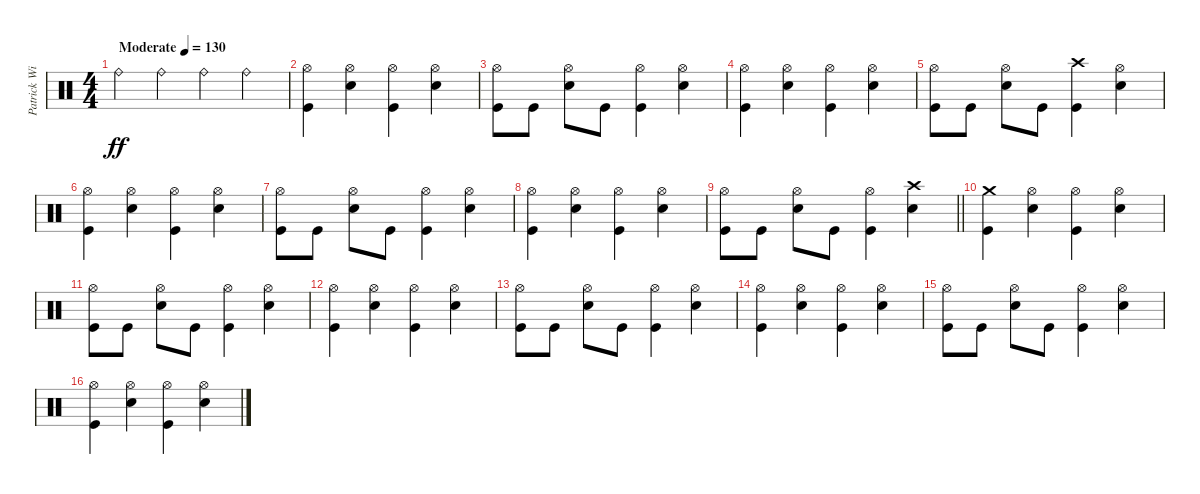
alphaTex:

\track ("Patrick Wilson" "Patrick Wi") {instrument percussion}
\staff {score}
\articulation defaults
\ts (4 4)
\tempo (130 "Moderate")
\clef neutral
\ks c "Ride (bell)".4{dy ff} "Ride (bell)".4 "Ride (bell)".4 "Ride (bell)".4
|
("Hi-Hat (open)" "Kick (hit)").4 ("Hi-Hat (open)" "Electric Snare (hit)").4 ("Hi-Hat (open)" "Kick (hit)").4 ("Hi-Hat (open)" "Electric Snare (hit)").4 |
("Hi-Hat (open)" "Kick (hit)").8 "Kick (hit)".8 ("Hi-Hat (open)" "Electric Snare (hit)").8 "Kick (hit)".8 ("Hi-Hat (open)" "Kick (hit)").4 ("Hi-Hat (open)" "Electric Snare (hit)").4 |
("Hi-Hat (open)" "Kick (hit)").4 ("Hi-Hat (open)" "Electric Snare (hit)").4 ("Hi-Hat (open)" "Kick (hit)").4 ("Hi-Hat (open)" "Electric Snare (hit)").4 |
("Hi-Hat (open)" "Kick (hit)").8 "Kick (hit)".8 ("Hi-Hat (open)" "Electric Snare (hit)").8 "Kick (hit)".8 ("Crash high (hit)" "Kick (hit)").4 ("Hi-Hat (open)" "Electric Snare (hit)").4 |
("Hi-Hat (open)" "Kick (hit)").4 ("Hi-Hat (open)" "Electric Snare (hit)").4 ("Hi-Hat (open)" "Kick (hit)").4 ("Hi-Hat (open)" "Electric Snare (hit)").4 |
("Hi-Hat (open)" "Kick (hit)").8 "Kick (hit)".8 ("Hi-Hat (open)" "Electric Snare (hit)").8 "Kick (hit)".8 ("Hi-Hat (open)" "Kick (hit)").4 ("Hi-Hat (open)" "Electric Snare (hit)").4 |
("Hi-Hat (open)" "Kick (hit)").4 ("Hi-Hat (open)" "Electric Snare (hit)").4 ("Hi-Hat (open)" "Kick (hit)").4 ("Hi-Hat (open)" "Electric Snare (hit)").4 |
\barLineRight lightlight
("Hi-Hat (open)" "Kick (hit)").8 "Kick (hit)".8 ("Hi-Hat (open)" "Electric Snare (hit)").8 "Kick (hit)".8 ("Hi-Hat (open)" "Kick (hit)").4 ("Crash high (hit)" "Electric Snare (hit)").4 |
("Crash medium (hit)" "Kick (hit)").4 ("Hi-Hat (open)" "Electric Snare (hit)").4 ("Hi-Hat (open)" "Kick (hit)").4 ("Hi-Hat (open)" "Electric Snare (hit)").4 |
("Hi-Hat (open)" "Kick (hit)").8 "Kick (hit)".8 ("Hi-Hat (open)" "Electric Snare (hit)").8 "Kick (hit)".8 ("Hi-Hat (open)" "Kick (hit)").4 ("Hi-Hat (open)" "Electric Snare (hit)").4 |
("Hi-Hat (open)" "Kick (hit)").4 ("Hi-Hat (open)" "Electric Snare (hit)").4 ("Hi-Hat (open)" "Kick (hit)").4 ("Hi-Hat (open)" "Electric Snare (hit)").4 |
("Hi-Hat (open)" "Kick (hit)").8 "Kick (hit)".8 ("Hi-Hat (open)" "Electric Snare (hit)").8 "Kick (hit)".8 ("Hi-Hat (open)" "Kick (hit)").4 ("Hi-Hat (open)" "Electric Snare (hit)").4 |
("Hi-Hat (open)" "Kick (hit)").4 ("Hi-Hat (open)" "Electric Snare (hit)").4 ("Hi-Hat (open)" "Kick (hit)").4 ("Hi-Hat (open)" "Electric Snare (hit)").4 |
("Hi-Hat (open)" "Kick (hit)").8 "Kick (hit)".8 ("Hi-Hat (open)" "Electric Snare (hit)").8 "Kick (hit)".8 ("Hi-Hat (open)" "Kick (hit)").4 ("Hi-Hat (open)" "Electric Snare (hit)").4 |
("Hi-Hat (open)" "Kick (hit)").4 ("Hi-Hat (open)" "Electric Snare (hit)").4 ("Hi-Hat (open)" "Kick (hit)").4 ("Hi-Hat (open)" "Electric Snare (hit)").4
